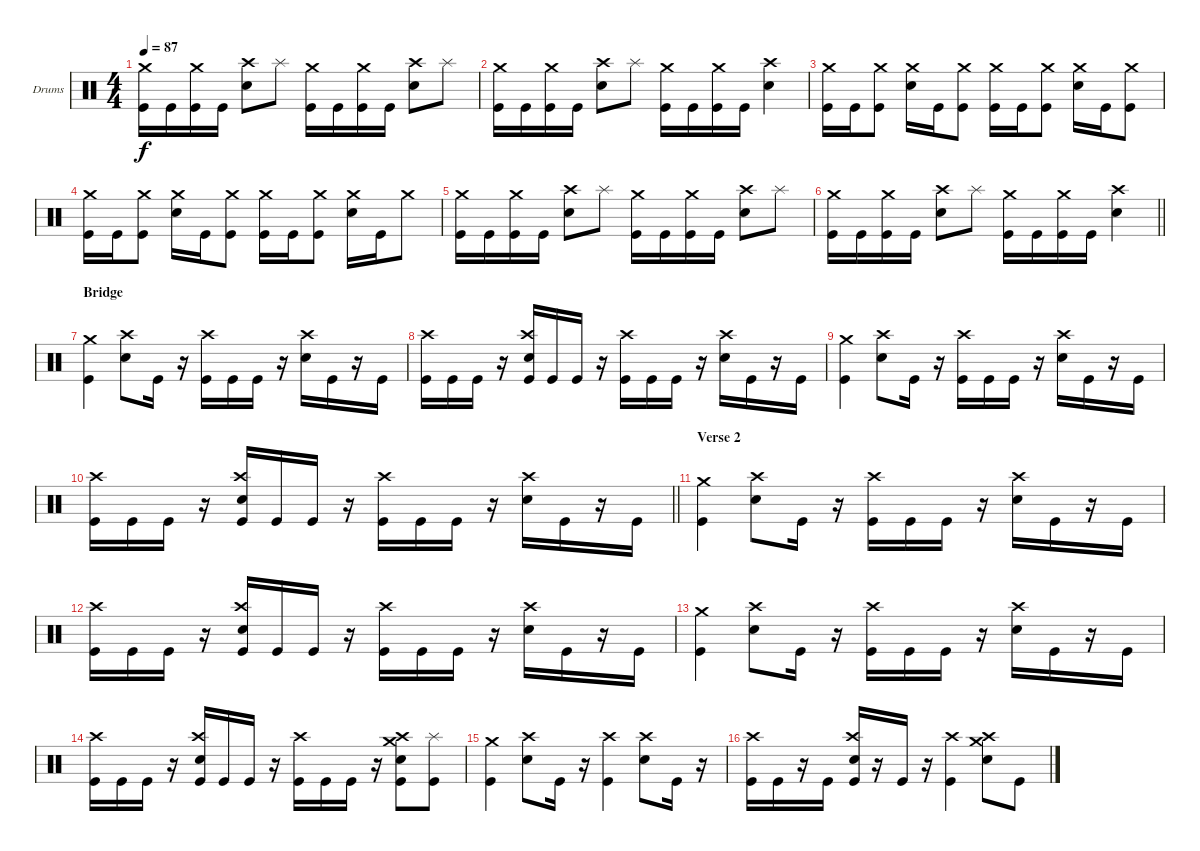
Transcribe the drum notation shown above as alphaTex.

\bracketExtendMode groupsimilarinstruments
\firstSystemTrackNameOrientation horizontal
\otherSystemsTrackNameOrientation horizontal
\track ("Drumkit" "Drums") {instrument percussion}
\staff {score}
\articulation defaults
\ts (4 4)
\tempo 87
\clef neutral
\ks c
("Crash medium (hit)" "Kick (hit)").16{dy f} "Kick (hit)".16 ("Crash medium (hit)" "Kick (hit)").16 "Kick (hit)".16 ("Crash high (hit)" "Snare (hit) 2").8 "Splash (hit)".8 ("Crash medium (hit)" "Kick (hit)").16 "Kick (hit)".16 ("Crash medium (hit)" "Kick (hit)").16 "Kick (hit)".16 ("Crash high (hit)" "Snare (hit) 2").8 "Splash (hit)".8 |
("Crash medium (hit)" "Kick (hit)").16 "Kick (hit)".16 ("Crash medium (hit)" "Kick (hit)").16 "Kick (hit)".16 ("Crash high (hit)" "Snare (hit) 2").8 "Splash (hit)".8 ("Crash medium (hit)" "Kick (hit)").16 "Kick (hit)".16 ("Crash medium (hit)" "Kick (hit)").16 "Kick (hit)".16 ("Crash high (hit)" "Snare (hit) 2").4 |
("Crash medium (hit)" "Kick (hit)").16 "Kick (hit)".16 ("Crash medium (hit)" "Kick (hit)").8 ("Crash medium (hit)" "Snare (hit) 2").16 "Kick (hit)".16 ("Crash medium (hit)" "Kick (hit)").8 ("Crash medium (hit)" "Kick (hit)").16 "Kick (hit)".16 ("Crash medium (hit)" "Kick (hit)").8 ("Crash medium (hit)" "Snare (hit) 2").16 "Kick (hit)".16 ("Crash medium (hit)" "Kick (hit)").8 |
("Crash medium (hit)" "Kick (hit)").16 "Kick (hit)".16 ("Crash medium (hit)" "Kick (hit)").8 ("Crash medium (hit)" "Snare (hit) 2").16 "Kick (hit)".16 ("Crash medium (hit)" "Kick (hit)").8 ("Crash medium (hit)" "Kick (hit)").16 "Kick (hit)".16 ("Crash medium (hit)" "Kick (hit)").8 ("Crash medium (hit)" "Snare (hit) 2").16 "Kick (hit)".16 "Crash medium (hit)".8 |
("Crash medium (hit)" "Kick (hit)").16 "Kick (hit)".16 ("Crash medium (hit)" "Kick (hit)").16 "Kick (hit)".16 ("Crash high (hit)" "Snare (hit) 2").8 "Splash (hit)".8 ("Crash medium (hit)" "Kick (hit)").16 "Kick (hit)".16 ("Crash medium (hit)" "Kick (hit)").16 "Kick (hit)".16 ("Crash high (hit)" "Snare (hit) 2").8 "Splash (hit)".8 |
\barLineRight lightlight
("Crash medium (hit)" "Kick (hit)").16 "Kick (hit)".16 ("Crash medium (hit)" "Kick (hit)").16 "Kick (hit)".16 ("Crash high (hit)" "Snare (hit) 2").8 "Splash (hit)".8 ("Crash medium (hit)" "Kick (hit)").16 "Kick (hit)".16 ("Crash medium (hit)" "Kick (hit)").16 "Kick (hit)".16 ("Crash high (hit)" "Snare (hit) 2").4 |
\section ("" "Bridge ")
("Crash medium (hit)" "Kick (hit)").4 ("Crash high (hit)" "Snare (hit) 2").8 "Kick (hit)".16 r.16 ("Crash high (hit)" "Kick (hit)").16 "Kick (hit)".16 "Kick (hit)".16 r.16 ("Crash high (hit)" "Snare (hit) 2").16 "Kick (hit)".16 r.16 "Kick (hit)".16 |
("Crash high (hit)" "Kick (hit)").16 "Kick (hit)".16 "Kick (hit)".16 r.16 ("Crash high (hit)" "Snare (hit) 2" "Kick (hit)").16 "Kick (hit)".16 "Kick (hit)".16 r.16 ("Crash high (hit)" "Kick (hit)").16 "Kick (hit)".16 "Kick (hit)".16 r.16 ("Crash high (hit)" "Snare (hit) 2").16 "Kick (hit)".16 r.16 "Kick (hit)".16 |
("Crash medium (hit)" "Kick (hit)").4 ("Crash high (hit)" "Snare (hit) 2").8 "Kick (hit)".16 r.16 ("Crash high (hit)" "Kick (hit)").16 "Kick (hit)".16 "Kick (hit)".16 r.16 ("Crash high (hit)" "Snare (hit) 2").16 "Kick (hit)".16 r.16 "Kick (hit)".16 |
\barLineRight lightlight
("Crash high (hit)" "Kick (hit)").16 "Kick (hit)".16 "Kick (hit)".16 r.16 ("Crash high (hit)" "Snare (hit) 2" "Kick (hit)").16 "Kick (hit)".16 "Kick (hit)".16 r.16 ("Crash high (hit)" "Kick (hit)").16 "Kick (hit)".16 "Kick (hit)".16 r.16 ("Crash high (hit)" "Snare (hit) 2").16 "Kick (hit)".16 r.16 "Kick (hit)".16 |
\section ("" "Verse 2")
("Crash medium (hit)" "Kick (hit)").4 ("Crash high (hit)" "Snare (hit) 2").8 "Kick (hit)".16 r.16 ("Crash high (hit)" "Kick (hit)").16 "Kick (hit)".16 "Kick (hit)".16 r.16 ("Crash high (hit)" "Snare (hit) 2").16 "Kick (hit)".16 r.16 "Kick (hit)".16 |
("Crash high (hit)" "Kick (hit)").16 "Kick (hit)".16 "Kick (hit)".16 r.16 ("Crash high (hit)" "Snare (hit) 2" "Kick (hit)").16 "Kick (hit)".16 "Kick (hit)".16 r.16 ("Crash high (hit)" "Kick (hit)").16 "Kick (hit)".16 "Kick (hit)".16 r.16 ("Crash high (hit)" "Snare (hit) 2").16 "Kick (hit)".16 r.16 "Kick (hit)".16 |
("Crash medium (hit)" "Kick (hit)").4 ("Crash high (hit)" "Snare (hit) 2").8 "Kick (hit)".16 r.16 ("Crash high (hit)" "Kick (hit)").16 "Kick (hit)".16 "Kick (hit)".16 r.16 ("Crash high (hit)" "Snare (hit) 2").16 "Kick (hit)".16 r.16 "Kick (hit)".16 |
("Crash high (hit)" "Kick (hit)").16 "Kick (hit)".16 "Kick (hit)".16 r.16 ("Crash high (hit)" "Snare (hit) 2" "Kick (hit)").16 "Kick (hit)".16 "Kick (hit)".16 r.16 ("Crash high (hit)" "Kick (hit)").16 "Kick (hit)".16 "Kick (hit)".16 r.16 ("Crash medium (hit)" "Crash high (hit)" "Snare (hit) 2" "Kick (hit)").8 ("Splash (hit)" "Kick (hit)").8 |
("Crash medium (hit)" "Kick (hit)").4 ("Crash high (hit)" "Snare (hit) 2").8 "Kick (hit)".16 r.16 ("Crash high (hit)" "Kick (hit)").4 ("Crash high (hit)" "Snare (hit) 2").8 "Kick (hit)".16 r.16 |
("Crash high (hit)" "Kick (hit)").16 "Kick (hit)".16 r.16 "Kick (hit)".16 ("Crash high (hit)" "Snare (hit) 2" "Kick (hit)").16 r.16 "Kick (hit)".16 r.16 ("Crash high (hit)" "Kick (hit)").4 ("Crash medium (hit)" "Crash high (hit)" "Snare (hit) 2").8 "Kick (hit)".8
